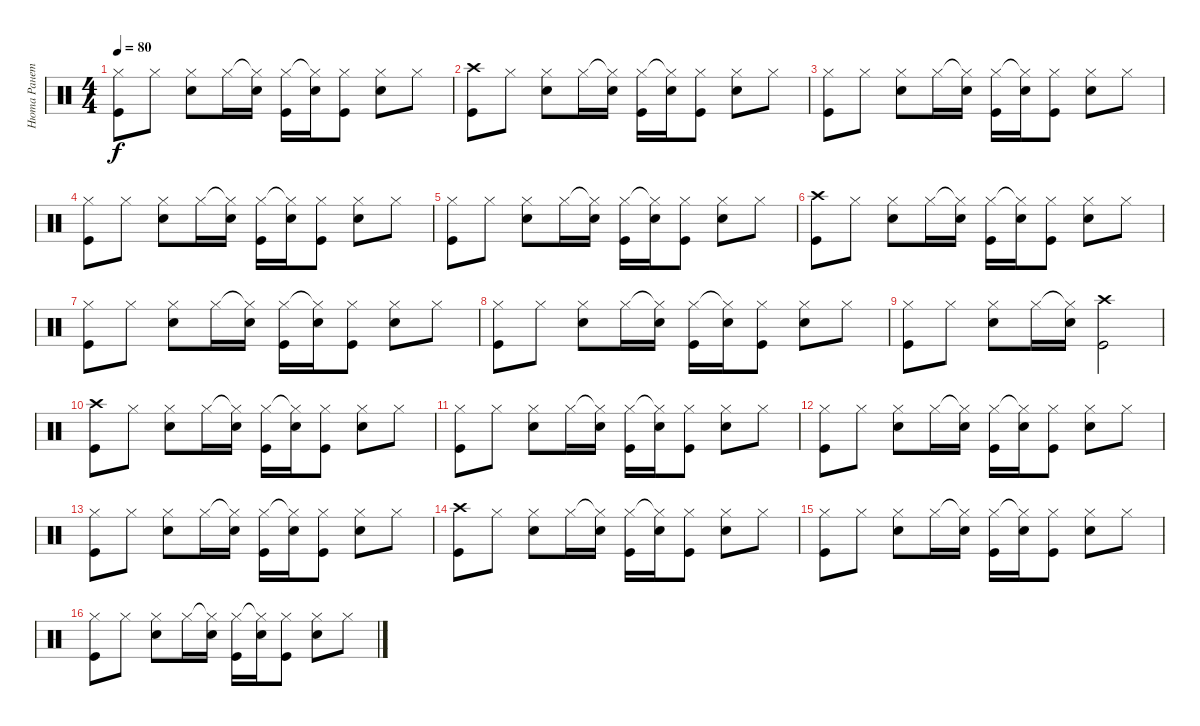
\track ("Нюта Ранетка" "Нюта Ранет") {instrument percussion}
\staff {score}
\articulation defaults
\ts (4 4)
\tempo 80
\clef neutral
\ks c
("Hi-Hat (closed)" "Kick (hit)").8{dy f} "Hi-Hat (closed)".8 ("Hi-Hat (closed)" "Electric Snare (hit)").8 "Hi-Hat (closed)".16 ("Hi-Hat (closed)"{t} "Electric Snare (hit)").16 ("Hi-Hat (closed)" "Kick (hit)").16 ("Hi-Hat (closed)"{t} "Electric Snare (hit)").16 ("Hi-Hat (closed)" "Kick (hit)").8 ("Hi-Hat (closed)" "Electric Snare (hit)").8 "Hi-Hat (closed)".8 |
("Crash high (hit)" "Kick (hit)").8 "Hi-Hat (closed)".8 ("Hi-Hat (closed)" "Electric Snare (hit)").8 "Hi-Hat (closed)".16 ("Hi-Hat (closed)"{t} "Electric Snare (hit)").16 ("Hi-Hat (closed)" "Kick (hit)").16 ("Hi-Hat (closed)"{t} "Electric Snare (hit)").16 ("Hi-Hat (closed)" "Kick (hit)").8 ("Hi-Hat (closed)" "Electric Snare (hit)").8 "Hi-Hat (closed)".8 |
("Hi-Hat (closed)" "Kick (hit)").8 "Hi-Hat (closed)".8 ("Hi-Hat (closed)" "Electric Snare (hit)").8 "Hi-Hat (closed)".16 ("Hi-Hat (closed)"{t} "Electric Snare (hit)").16 ("Hi-Hat (closed)" "Kick (hit)").16 ("Hi-Hat (closed)"{t} "Electric Snare (hit)").16 ("Hi-Hat (closed)" "Kick (hit)").8 ("Hi-Hat (closed)" "Electric Snare (hit)").8 "Hi-Hat (closed)".8 |
("Hi-Hat (closed)" "Kick (hit)").8 "Hi-Hat (closed)".8 ("Hi-Hat (closed)" "Electric Snare (hit)").8 "Hi-Hat (closed)".16 ("Hi-Hat (closed)"{t} "Electric Snare (hit)").16 ("Hi-Hat (closed)" "Kick (hit)").16 ("Hi-Hat (closed)"{t} "Electric Snare (hit)").16 ("Hi-Hat (closed)" "Kick (hit)").8 ("Hi-Hat (closed)" "Electric Snare (hit)").8 "Hi-Hat (closed)".8 |
("Hi-Hat (closed)" "Kick (hit)").8 "Hi-Hat (closed)".8 ("Hi-Hat (closed)" "Electric Snare (hit)").8 "Hi-Hat (closed)".16 ("Hi-Hat (closed)"{t} "Electric Snare (hit)").16 ("Hi-Hat (closed)" "Kick (hit)").16 ("Hi-Hat (closed)"{t} "Electric Snare (hit)").16 ("Hi-Hat (closed)" "Kick (hit)").8 ("Hi-Hat (closed)" "Electric Snare (hit)").8 "Hi-Hat (closed)".8 |
("Crash high (hit)" "Kick (hit)").8 "Hi-Hat (closed)".8 ("Hi-Hat (closed)" "Electric Snare (hit)").8 "Hi-Hat (closed)".16 ("Hi-Hat (closed)"{t} "Electric Snare (hit)").16 ("Hi-Hat (closed)" "Kick (hit)").16 ("Hi-Hat (closed)"{t} "Electric Snare (hit)").16 ("Hi-Hat (closed)" "Kick (hit)").8 ("Hi-Hat (closed)" "Electric Snare (hit)").8 "Hi-Hat (closed)".8 |
("Hi-Hat (closed)" "Kick (hit)").8 "Hi-Hat (closed)".8 ("Hi-Hat (closed)" "Electric Snare (hit)").8 "Hi-Hat (closed)".16 ("Hi-Hat (closed)"{t} "Electric Snare (hit)").16 ("Hi-Hat (closed)" "Kick (hit)").16 ("Hi-Hat (closed)"{t} "Electric Snare (hit)").16 ("Hi-Hat (closed)" "Kick (hit)").8 ("Hi-Hat (closed)" "Electric Snare (hit)").8 "Hi-Hat (closed)".8 |
("Hi-Hat (closed)" "Kick (hit)").8 "Hi-Hat (closed)".8 ("Hi-Hat (closed)" "Electric Snare (hit)").8 "Hi-Hat (closed)".16 ("Hi-Hat (closed)"{t} "Electric Snare (hit)").16 ("Hi-Hat (closed)" "Kick (hit)").16 ("Hi-Hat (closed)"{t} "Electric Snare (hit)").16 ("Hi-Hat (closed)" "Kick (hit)").8 ("Hi-Hat (closed)" "Electric Snare (hit)").8 "Hi-Hat (closed)".8 |
("Hi-Hat (closed)" "Kick (hit)").8 "Hi-Hat (closed)".8 ("Hi-Hat (closed)" "Electric Snare (hit)").8 "Hi-Hat (closed)".16 ("Hi-Hat (closed)"{t} "Electric Snare (hit)").16 ("Crash high (hit)" "Kick (hit)").2 |
("Crash high (hit)" "Kick (hit)").8 "Hi-Hat (closed)".8 ("Hi-Hat (closed)" "Electric Snare (hit)").8 "Hi-Hat (closed)".16 ("Hi-Hat (closed)"{t} "Electric Snare (hit)").16 ("Hi-Hat (closed)" "Kick (hit)").16 ("Hi-Hat (closed)"{t} "Electric Snare (hit)").16 ("Hi-Hat (closed)" "Kick (hit)").8 ("Hi-Hat (closed)" "Electric Snare (hit)").8 "Hi-Hat (closed)".8 |
("Hi-Hat (closed)" "Kick (hit)").8 "Hi-Hat (closed)".8 ("Hi-Hat (closed)" "Electric Snare (hit)").8 "Hi-Hat (closed)".16 ("Hi-Hat (closed)"{t} "Electric Snare (hit)").16 ("Hi-Hat (closed)" "Kick (hit)").16 ("Hi-Hat (closed)"{t} "Electric Snare (hit)").16 ("Hi-Hat (closed)" "Kick (hit)").8 ("Hi-Hat (closed)" "Electric Snare (hit)").8 "Hi-Hat (closed)".8 |
("Hi-Hat (closed)" "Kick (hit)").8 "Hi-Hat (closed)".8 ("Hi-Hat (closed)" "Electric Snare (hit)").8 "Hi-Hat (closed)".16 ("Hi-Hat (closed)"{t} "Electric Snare (hit)").16 ("Hi-Hat (closed)" "Kick (hit)").16 ("Hi-Hat (closed)"{t} "Electric Snare (hit)").16 ("Hi-Hat (closed)" "Kick (hit)").8 ("Hi-Hat (closed)" "Electric Snare (hit)").8 "Hi-Hat (closed)".8 |
("Hi-Hat (closed)" "Kick (hit)").8 "Hi-Hat (closed)".8 ("Hi-Hat (closed)" "Electric Snare (hit)").8 "Hi-Hat (closed)".16 ("Hi-Hat (closed)"{t} "Electric Snare (hit)").16 ("Hi-Hat (closed)" "Kick (hit)").16 ("Hi-Hat (closed)"{t} "Electric Snare (hit)").16 ("Hi-Hat (closed)" "Kick (hit)").8 ("Hi-Hat (closed)" "Electric Snare (hit)").8 "Hi-Hat (closed)".8 |
("Crash high (hit)" "Kick (hit)").8 "Hi-Hat (closed)".8 ("Hi-Hat (closed)" "Electric Snare (hit)").8 "Hi-Hat (closed)".16 ("Hi-Hat (closed)"{t} "Electric Snare (hit)").16 ("Hi-Hat (closed)" "Kick (hit)").16 ("Hi-Hat (closed)"{t} "Electric Snare (hit)").16 ("Hi-Hat (closed)" "Kick (hit)").8 ("Hi-Hat (closed)" "Electric Snare (hit)").8 "Hi-Hat (closed)".8 |
("Hi-Hat (closed)" "Kick (hit)").8 "Hi-Hat (closed)".8 ("Hi-Hat (closed)" "Electric Snare (hit)").8 "Hi-Hat (closed)".16 ("Hi-Hat (closed)"{t} "Electric Snare (hit)").16 ("Hi-Hat (closed)" "Kick (hit)").16 ("Hi-Hat (closed)"{t} "Electric Snare (hit)").16 ("Hi-Hat (closed)" "Kick (hit)").8 ("Hi-Hat (closed)" "Electric Snare (hit)").8 "Hi-Hat (closed)".8 |
("Hi-Hat (closed)" "Kick (hit)").8 "Hi-Hat (closed)".8 ("Hi-Hat (closed)" "Electric Snare (hit)").8 "Hi-Hat (closed)".16 ("Hi-Hat (closed)"{t} "Electric Snare (hit)").16 ("Hi-Hat (closed)" "Kick (hit)").16 ("Hi-Hat (closed)"{t} "Electric Snare (hit)").16 ("Hi-Hat (closed)" "Kick (hit)").8 ("Hi-Hat (closed)" "Electric Snare (hit)").8 "Hi-Hat (closed)".8
